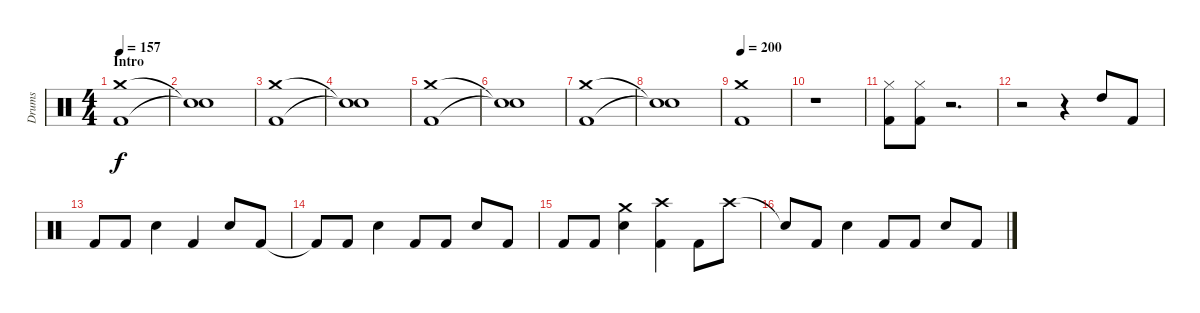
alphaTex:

\track ("Drums" "Drums") {instrument percussion}
\staff {score}
\articulation defaults
\ts (4 4)
\section ("" "Intro")
\tempo 157
\tempo 200
\tempo 157
\clef neutral
\ks c
("Crash medium (hit)" "Kick (hit) 2").1{dy f} |
("Snare (hit)"{t} "Snare (hit)"{t}).1 |
("Crash medium (hit)" "Kick (hit) 2").1 |
("Snare (hit)"{t} "Snare (hit)"{t}).1 |
("Crash medium (hit)" "Kick (hit) 2").1 |
("Snare (hit)"{t} "Snare (hit)"{t}).1 |
("Crash medium (hit)" "Kick (hit) 2").1 |
("Snare (hit)"{t} "Snare (hit)"{t}).1 |
\tempo 200
("Crash medium (hit)" "Kick (hit) 2").1 |
r.1 |
("Hi-Hat (closed)" "Kick (hit) 2").8 ("Hi-Hat (closed)" "Kick (hit) 2").8 r.2{d} |
r.2 r.4 "High Tom (hit)".8 "Kick (hit) 2".8 |
"Kick (hit) 2".8 "Kick (hit) 2".8 "Electric Snare (hit)".4 "Kick (hit) 2".4 "Electric Snare (hit)".8 "Kick (hit) 2".8 |
"Kick (hit) 2"{t}.8 "Kick (hit) 2".8 "Electric Snare (hit)".4 "Kick (hit) 2".8 "Kick (hit) 2".8 "Electric Snare (hit)".8 "Kick (hit) 2".8 |
"Kick (hit) 2".8 "Kick (hit) 2".8 ("Crash medium (hit)" "Electric Snare (hit)").4 ("Crash high (hit)" "Kick (hit) 2").4 "Kick (hit) 2".8 "Crash high (hit)".8 |
"Snare (hit)"{t}.8 "Kick (hit) 2".8 "Electric Snare (hit)".4 "Kick (hit) 2".8 "Kick (hit) 2".8 "Electric Snare (hit)".8 "Kick (hit) 2".8
